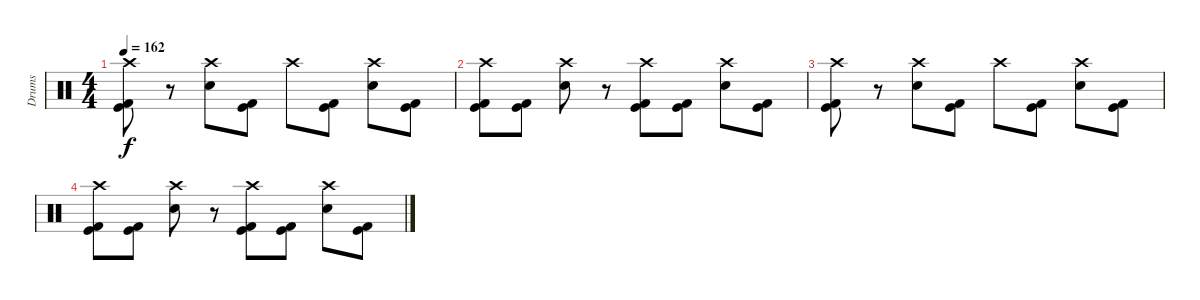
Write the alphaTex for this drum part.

\track ("Drums" "Drums") {instrument percussion}
\staff {score}
\articulation defaults
\ts (4 4)
\tempo 162
\clef neutral
\ks c
("Kick (hit)" "Kick (hit) 2" "Crash high (hit)").8{dy f} r.8 ("Snare (hit) 2" "Crash high (hit)").8 ("Kick (hit)" "Kick (hit) 2").8 "Crash high (hit)".8 ("Kick (hit)" "Kick (hit) 2").8 ("Snare (hit) 2" "Crash high (hit)").8 ("Kick (hit)" "Kick (hit) 2").8 |
("Kick (hit)" "Kick (hit) 2" "Crash high (hit)").8 ("Kick (hit)" "Kick (hit) 2").8 ("Snare (hit) 2" "Crash high (hit)").8 r.8 ("Kick (hit)" "Kick (hit) 2" "Crash high (hit)").8 ("Kick (hit)" "Kick (hit) 2").8 ("Snare (hit) 2" "Crash high (hit)").8 ("Kick (hit)" "Kick (hit) 2").8 |
("Kick (hit)" "Kick (hit) 2" "Crash high (hit)").8 r.8 ("Snare (hit) 2" "Crash high (hit)").8 ("Kick (hit)" "Kick (hit) 2").8 "Crash high (hit)".8 ("Kick (hit)" "Kick (hit) 2").8 ("Snare (hit) 2" "Crash high (hit)").8 ("Kick (hit)" "Kick (hit) 2").8 |
("Kick (hit)" "Kick (hit) 2" "Crash high (hit)").8 ("Kick (hit)" "Kick (hit) 2").8 ("Snare (hit) 2" "Crash high (hit)").8 r.8 ("Kick (hit)" "Kick (hit) 2" "Crash high (hit)").8 ("Kick (hit)" "Kick (hit) 2").8 ("Snare (hit) 2" "Crash high (hit)").8 ("Kick (hit)" "Kick (hit) 2").8
